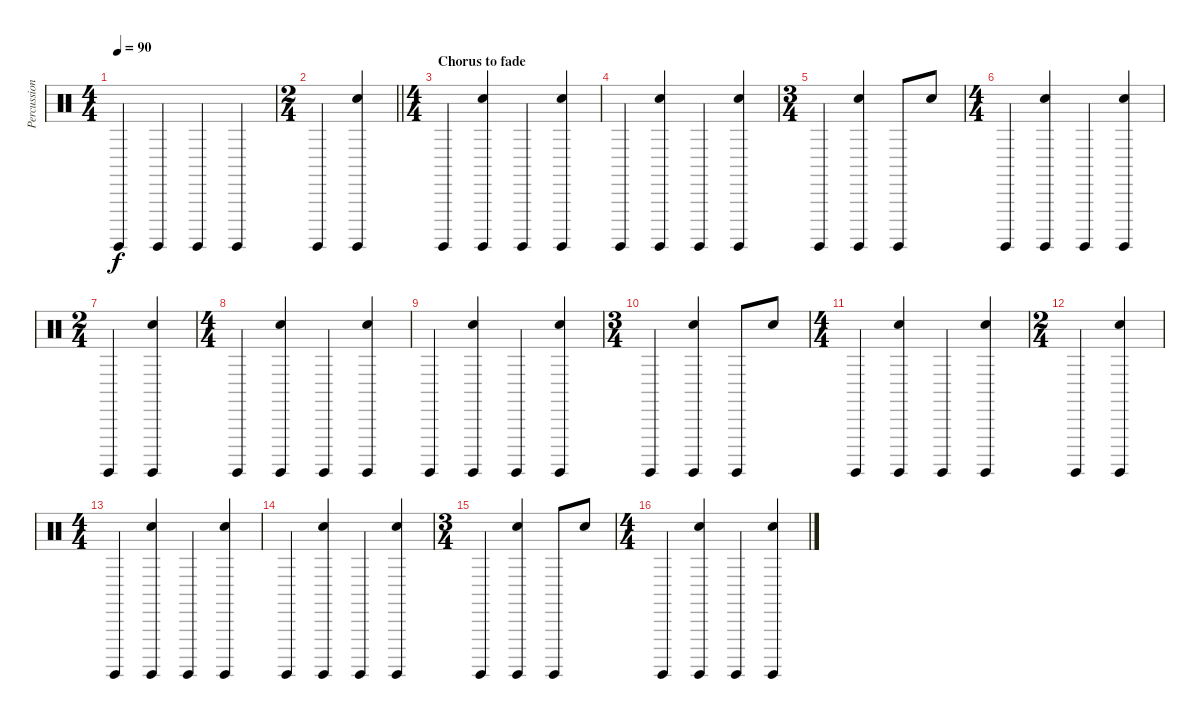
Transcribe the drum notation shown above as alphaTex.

\track ("Percussion" "Percussion") {instrument percussion}
\staff {score}
\articulation defaults
\ts (4 4)
\tempo 90
\clef neutral
\ks c "Surdo (hit)".4{dy f} "Surdo (hit)".4 "Surdo (hit)".4 "Surdo (hit)".4
|
\ts (2 4)
\barLineRight lightlight "Surdo (hit)".4
("Surdo (hit)" "Hand Clap (hit)").4 |
\ts (4 4)
\section ("" "Chorus to fade")
"Surdo (hit)".4 ("Surdo (hit)" "Hand Clap (hit)").4 "Surdo (hit)".4 ("Surdo (hit)" "Hand Clap (hit)").4 |
"Surdo (hit)".4 ("Surdo (hit)" "Hand Clap (hit)").4 "Surdo (hit)".4 ("Surdo (hit)" "Hand Clap (hit)").4 |
\ts (3 4)
"Surdo (hit)".4 ("Surdo (hit)" "Hand Clap (hit)").4 "Surdo (hit)".8 "Hand Clap (hit)".8 |
\ts (4 4)
"Surdo (hit)".4 ("Surdo (hit)" "Hand Clap (hit)").4 "Surdo (hit)".4 ("Surdo (hit)" "Hand Clap (hit)").4 |
\ts (2 4)
"Surdo (hit)".4 ("Surdo (hit)" "Hand Clap (hit)").4 |
\ts (4 4)
"Surdo (hit)".4 ("Surdo (hit)" "Hand Clap (hit)").4 "Surdo (hit)".4 ("Surdo (hit)" "Hand Clap (hit)").4 |
"Surdo (hit)".4 ("Surdo (hit)" "Hand Clap (hit)").4 "Surdo (hit)".4 ("Surdo (hit)" "Hand Clap (hit)").4 |
\ts (3 4)
"Surdo (hit)".4 ("Surdo (hit)" "Hand Clap (hit)").4 "Surdo (hit)".8 "Hand Clap (hit)".8 |
\ts (4 4)
"Surdo (hit)".4 ("Surdo (hit)" "Hand Clap (hit)").4 "Surdo (hit)".4 ("Surdo (hit)" "Hand Clap (hit)").4 |
\ts (2 4)
"Surdo (hit)".4 ("Surdo (hit)" "Hand Clap (hit)").4 |
\ts (4 4)
"Surdo (hit)".4 ("Surdo (hit)" "Hand Clap (hit)").4 "Surdo (hit)".4 ("Surdo (hit)" "Hand Clap (hit)").4 |
"Surdo (hit)".4 ("Surdo (hit)" "Hand Clap (hit)").4 "Surdo (hit)".4 ("Surdo (hit)" "Hand Clap (hit)").4 |
\ts (3 4)
"Surdo (hit)".4 ("Surdo (hit)" "Hand Clap (hit)").4 "Surdo (hit)".8 "Hand Clap (hit)".8 |
\ts (4 4)
"Surdo (hit)".4 ("Surdo (hit)" "Hand Clap (hit)").4 "Surdo (hit)".4 ("Surdo (hit)" "Hand Clap (hit)").4
